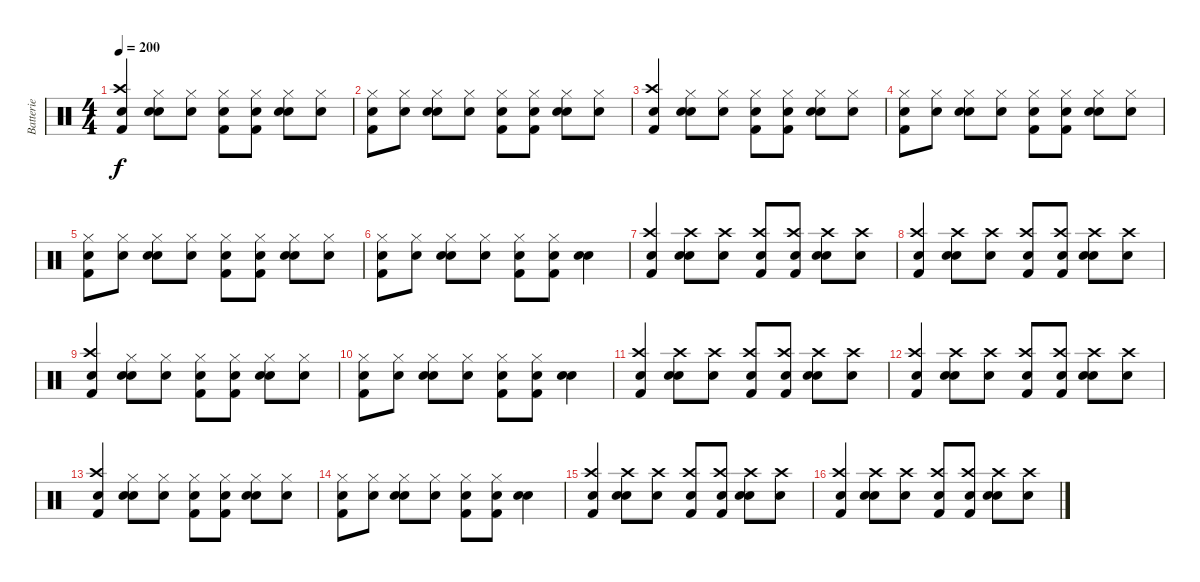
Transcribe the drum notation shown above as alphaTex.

\track ("Batterie" "Batterie") {instrument percussion}
\staff {score}
\articulation defaults
\ts (4 4)
\tempo 200
\clef neutral
\ks c
("Snare (hit)" "Crash high (hit)" "Kick (hit) 2").4{dy f} ("Snare (hit)" "Hi-Hat (closed)" "Electric Snare (hit)").8 ("Snare (hit)" "Hi-Hat (closed)").8 ("Snare (hit)" "Hi-Hat (closed)" "Kick (hit) 2").8 ("Snare (hit)" "Hi-Hat (closed)" "Kick (hit) 2").8 ("Snare (hit)" "Hi-Hat (closed)" "Electric Snare (hit)").8 ("Snare (hit)" "Hi-Hat (closed)").8 |
("Snare (hit)" "Hi-Hat (closed)" "Kick (hit) 2").8 ("Snare (hit)" "Hi-Hat (closed)").8 ("Snare (hit)" "Hi-Hat (closed)" "Electric Snare (hit)").8 ("Snare (hit)" "Hi-Hat (closed)").8 ("Snare (hit)" "Hi-Hat (closed)" "Kick (hit) 2").8 ("Snare (hit)" "Hi-Hat (closed)" "Kick (hit) 2").8 ("Snare (hit)" "Hi-Hat (closed)" "Electric Snare (hit)").8 ("Snare (hit)" "Hi-Hat (closed)").8 |
("Snare (hit)" "Crash high (hit)" "Kick (hit) 2").4 ("Snare (hit)" "Hi-Hat (closed)" "Electric Snare (hit)").8 ("Snare (hit)" "Hi-Hat (closed)").8 ("Snare (hit)" "Hi-Hat (closed)" "Kick (hit) 2").8 ("Snare (hit)" "Hi-Hat (closed)" "Kick (hit) 2").8 ("Snare (hit)" "Hi-Hat (closed)" "Electric Snare (hit)").8 ("Snare (hit)" "Hi-Hat (closed)").8 |
("Snare (hit)" "Hi-Hat (closed)" "Kick (hit) 2").8 ("Snare (hit)" "Hi-Hat (closed)").8 ("Snare (hit)" "Hi-Hat (closed)" "Electric Snare (hit)").8 ("Snare (hit)" "Hi-Hat (closed)").8 ("Snare (hit)" "Hi-Hat (closed)" "Kick (hit) 2").8 ("Snare (hit)" "Hi-Hat (closed)" "Kick (hit) 2").8 ("Snare (hit)" "Hi-Hat (closed)" "Electric Snare (hit)").8 ("Snare (hit)" "Hi-Hat (closed)").8 |
("Snare (hit)" "Hi-Hat (closed)" "Kick (hit) 2").8 ("Snare (hit)" "Hi-Hat (closed)").8 ("Snare (hit)" "Hi-Hat (closed)" "Electric Snare (hit)").8 ("Snare (hit)" "Hi-Hat (closed)").8 ("Snare (hit)" "Hi-Hat (closed)" "Kick (hit) 2").8 ("Snare (hit)" "Hi-Hat (closed)" "Kick (hit) 2").8 ("Snare (hit)" "Hi-Hat (closed)" "Electric Snare (hit)").8 ("Snare (hit)" "Hi-Hat (closed)").8 |
("Snare (hit)" "Hi-Hat (closed)" "Kick (hit) 2").8 ("Snare (hit)" "Hi-Hat (closed)").8 ("Snare (hit)" "Hi-Hat (closed)" "Electric Snare (hit)").8 ("Snare (hit)" "Hi-Hat (closed)").8 ("Snare (hit)" "Hi-Hat (closed)" "Kick (hit) 2").8 ("Snare (hit)" "Hi-Hat (closed)" "Kick (hit) 2").8 ("Snare (hit)" "Electric Snare (hit)").4 |
("Snare (hit)" "Kick (hit) 2" "Crash high (hit)").4 ("Snare (hit)" "Crash high (hit)" "Electric Snare (hit)").8 ("Snare (hit)" "Crash high (hit)").8 ("Snare (hit)" "Crash high (hit)" "Kick (hit) 2").8 ("Snare (hit)" "Crash high (hit)" "Kick (hit) 2").8 ("Snare (hit)" "Crash high (hit)" "Electric Snare (hit)").8 ("Snare (hit)" "Crash high (hit)").8 |
("Snare (hit)" "Kick (hit) 2" "Crash high (hit)").4 ("Snare (hit)" "Crash high (hit)" "Electric Snare (hit)").8 ("Snare (hit)" "Crash high (hit)").8 ("Snare (hit)" "Crash high (hit)" "Kick (hit) 2").8 ("Snare (hit)" "Crash high (hit)" "Kick (hit) 2").8 ("Snare (hit)" "Crash high (hit)" "Electric Snare (hit)").8 ("Snare (hit)" "Crash high (hit)").8 |
("Snare (hit)" "Kick (hit) 2" "Crash high (hit)").4 ("Snare (hit)" "Hi-Hat (closed)" "Electric Snare (hit)").8 ("Snare (hit)" "Hi-Hat (closed)").8 ("Snare (hit)" "Hi-Hat (closed)" "Kick (hit) 2").8 ("Snare (hit)" "Hi-Hat (closed)" "Kick (hit) 2").8 ("Snare (hit)" "Hi-Hat (closed)" "Electric Snare (hit)").8 ("Snare (hit)" "Hi-Hat (closed)").8 |
("Snare (hit)" "Hi-Hat (closed)" "Kick (hit) 2").8 ("Snare (hit)" "Hi-Hat (closed)").8 ("Snare (hit)" "Hi-Hat (closed)" "Electric Snare (hit)").8 ("Snare (hit)" "Hi-Hat (closed)").8 ("Snare (hit)" "Hi-Hat (closed)" "Kick (hit) 2").8 ("Snare (hit)" "Hi-Hat (closed)" "Kick (hit) 2").8 ("Snare (hit)" "Electric Snare (hit)").4 |
("Snare (hit)" "Kick (hit) 2" "Crash high (hit)").4 ("Snare (hit)" "Crash high (hit)" "Electric Snare (hit)").8 ("Snare (hit)" "Crash high (hit)").8 ("Snare (hit)" "Crash high (hit)" "Kick (hit) 2").8 ("Snare (hit)" "Crash high (hit)" "Kick (hit) 2").8 ("Snare (hit)" "Crash high (hit)" "Electric Snare (hit)").8 ("Snare (hit)" "Crash high (hit)").8 |
("Snare (hit)" "Kick (hit) 2" "Crash high (hit)").4 ("Snare (hit)" "Crash high (hit)" "Electric Snare (hit)").8 ("Snare (hit)" "Crash high (hit)").8 ("Snare (hit)" "Crash high (hit)" "Kick (hit) 2").8 ("Snare (hit)" "Crash high (hit)" "Kick (hit) 2").8 ("Snare (hit)" "Crash high (hit)" "Electric Snare (hit)").8 ("Snare (hit)" "Crash high (hit)").8 |
("Snare (hit)" "Kick (hit) 2" "Crash high (hit)").4 ("Snare (hit)" "Hi-Hat (closed)" "Electric Snare (hit)").8 ("Snare (hit)" "Hi-Hat (closed)").8 ("Snare (hit)" "Hi-Hat (closed)" "Kick (hit) 2").8 ("Snare (hit)" "Hi-Hat (closed)" "Kick (hit) 2").8 ("Snare (hit)" "Hi-Hat (closed)" "Electric Snare (hit)").8 ("Snare (hit)" "Hi-Hat (closed)").8 |
("Snare (hit)" "Hi-Hat (closed)" "Kick (hit) 2").8 ("Snare (hit)" "Hi-Hat (closed)").8 ("Snare (hit)" "Hi-Hat (closed)" "Electric Snare (hit)").8 ("Snare (hit)" "Hi-Hat (closed)").8 ("Snare (hit)" "Hi-Hat (closed)" "Kick (hit) 2").8 ("Snare (hit)" "Hi-Hat (closed)" "Kick (hit) 2").8 ("Snare (hit)" "Electric Snare (hit)").4 |
("Snare (hit)" "Crash high (hit)" "Kick (hit) 2").4 ("Snare (hit)" "Crash high (hit)" "Electric Snare (hit)").8 ("Snare (hit)" "Crash high (hit)").8 ("Snare (hit)" "Crash high (hit)" "Kick (hit) 2").8 ("Snare (hit)" "Crash high (hit)" "Kick (hit) 2").8 ("Snare (hit)" "Crash high (hit)" "Electric Snare (hit)").8 ("Snare (hit)" "Crash high (hit)").8 |
("Snare (hit)" "Crash high (hit)" "Kick (hit) 2").4 ("Snare (hit)" "Crash high (hit)" "Electric Snare (hit)").8 ("Snare (hit)" "Crash high (hit)").8 ("Snare (hit)" "Crash high (hit)" "Kick (hit) 2").8 ("Snare (hit)" "Crash high (hit)" "Kick (hit) 2").8 ("Snare (hit)" "Crash high (hit)" "Electric Snare (hit)").8 ("Snare (hit)" "Crash high (hit)").8
